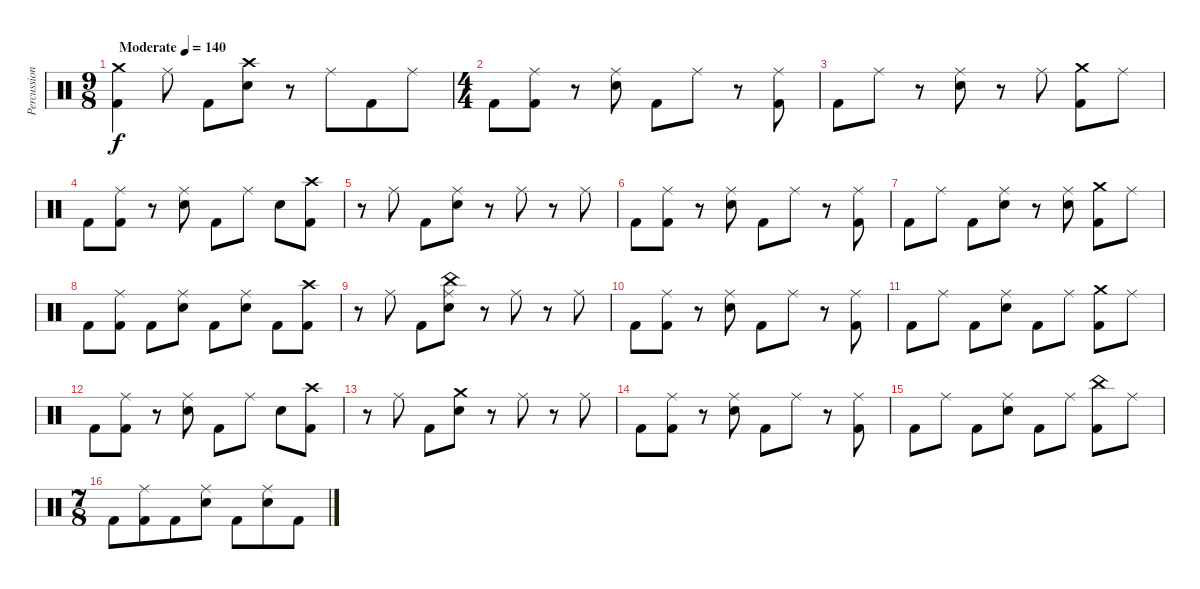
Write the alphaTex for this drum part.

\track ("Percussion" "Percussion") {instrument percussion}
\staff {score}
\articulation defaults
\ts (9 8)
\tempo (140 "Moderate")
\clef neutral
\ks c
("Crash medium (hit)" "Kick (hit) 2").4{dy f} "Ride (middle)".8 "Kick (hit) 2".8 ("Crash high (hit)" "Snare (hit) 2").8 r.8 "Ride (middle)".8 "Kick (hit) 2".8 "Ride (middle)".8 |
\ts (4 4)
"Kick (hit) 2".8 ("Ride (middle)" "Kick (hit) 2").8 r.8 ("Ride (middle)" "Snare (hit) 2").8 "Kick (hit) 2".8 "Ride (middle)".8 r.8 ("Ride (middle)" "Kick (hit) 2").8 |
"Kick (hit) 2".8 "Ride (middle)".8 r.8 ("Ride (middle)" "Snare (hit) 2").8 r.8 "Ride (middle)".8 ("Crash medium (hit)" "Kick (hit) 2").8 "Ride (middle)".8 |
"Kick (hit) 2".8 ("Ride (middle)" "Kick (hit) 2").8 r.8 ("Ride (middle)" "Snare (hit) 2").8 "Kick (hit) 2".8 "Ride (middle)".8 "Snare (hit) 2".8 ("Crash high (hit)" "Kick (hit) 2").8 |
r.8 "Ride (middle)".8 "Kick (hit) 2".8 ("Ride (middle)" "Snare (hit) 2").8 r.8 "Ride (middle)".8 r.8 "Ride (middle)".8 |
"Kick (hit) 2".8 ("Ride (middle)" "Kick (hit) 2").8 r.8 ("Ride (middle)" "Snare (hit) 2").8 "Kick (hit) 2".8 "Ride (middle)".8 r.8 ("Ride (middle)" "Kick (hit) 2").8 |
"Kick (hit) 2".8 "Ride (middle)".8 "Kick (hit) 2".8 ("Ride (middle)" "Snare (hit) 2").8 r.8 ("Ride (middle)" "Snare (hit) 2").8 ("Crash medium (hit)" "Kick (hit) 2").8 "Ride (middle)".8 |
"Kick (hit) 2".8 ("Ride (middle)" "Kick (hit) 2").8 "Kick (hit) 2".8 ("Ride (middle)" "Snare (hit) 2").8 "Kick (hit) 2".8 ("Ride (middle)" "Snare (hit) 2").8 "Kick (hit) 2".8 ("Crash high (hit)" "Kick (hit) 2").8 |
r.8 "Ride (middle)".8 "Kick (hit) 2".8 ("Ride (middle)" "China (hit)" "Snare (hit) 2").8 r.8 "Ride (middle)".8 r.8 "Ride (middle)".8 |
"Kick (hit) 2".8 ("Ride (middle)" "Kick (hit) 2").8 r.8 ("Ride (middle)" "Snare (hit) 2").8 "Kick (hit) 2".8 "Ride (middle)".8 r.8 ("Ride (middle)" "Kick (hit) 2").8 |
"Kick (hit) 2".8 "Ride (middle)".8 "Kick (hit) 2".8 ("Ride (middle)" "Snare (hit) 2").8 "Kick (hit) 2".8 "Ride (middle)".8 ("Crash medium (hit)" "Kick (hit) 2").8 "Ride (middle)".8 |
"Kick (hit) 2".8 ("Ride (middle)" "Kick (hit) 2").8 r.8 ("Ride (middle)" "Snare (hit) 2").8 "Kick (hit) 2".8 "Ride (middle)".8 "Snare (hit) 2".8 ("Crash high (hit)" "Kick (hit) 2").8 |
r.8 "Ride (middle)".8 "Kick (hit) 2".8 ("Crash medium (hit)" "Snare (hit) 2").8 r.8 "Ride (middle)".8 r.8 "Ride (middle)".8 |
"Kick (hit) 2".8 ("Ride (middle)" "Kick (hit) 2").8 r.8 ("Ride (middle)" "Snare (hit) 2").8 "Kick (hit) 2".8 "Ride (middle)".8 r.8 ("Ride (middle)" "Kick (hit) 2").8 |
"Kick (hit) 2".8 "Ride (middle)".8 "Kick (hit) 2".8 ("Ride (middle)" "Snare (hit) 2").8 "Kick (hit) 2".8 "Ride (middle)".8 ("China (hit)" "Kick (hit) 2").8 "Ride (middle)".8 |
\ts (7 8)
"Kick (hit) 2".8 ("Ride (middle)" "Kick (hit) 2").8 "Kick (hit) 2".8 ("Ride (middle)" "Snare (hit) 2").8 "Kick (hit) 2".8 ("Ride (middle)" "Snare (hit) 2").8 "Kick (hit) 2".8
